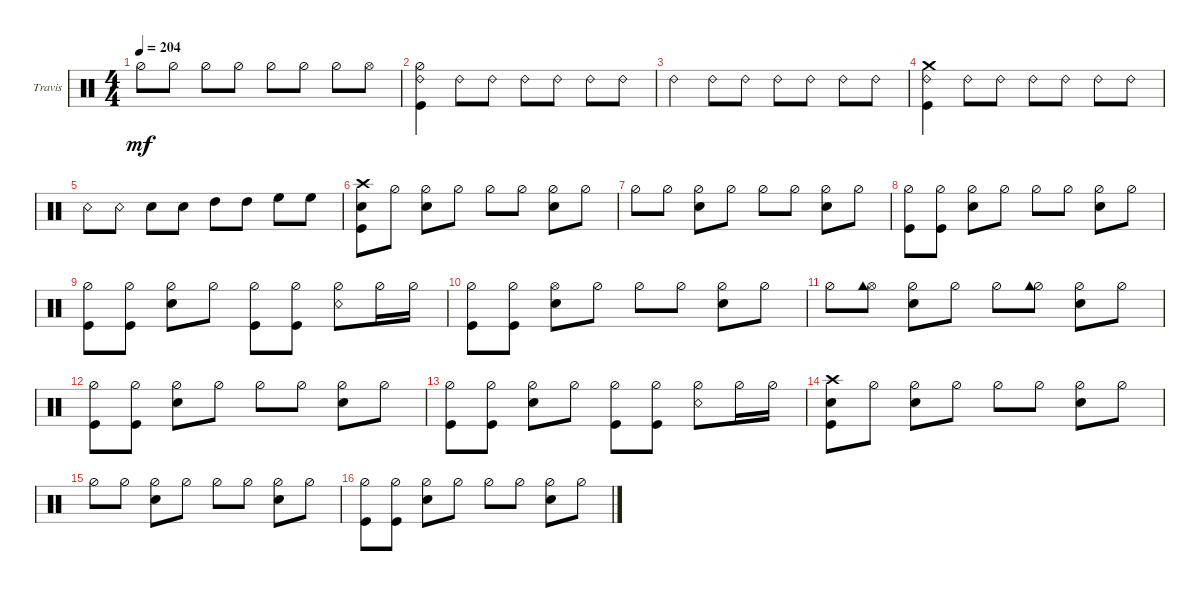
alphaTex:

\defaultSystemsLayout 4
\bracketExtendMode groupsimilarinstruments
\firstSystemTrackNameOrientation horizontal
\otherSystemsTrackNameOrientation horizontal
\track ("Travis Barker" "Travis") {instrument percussion}
\staff {score}
\articulation defaults
\ts (4 4)
\tempo 204
\clef neutral
\ks c "Hi-Hat (half)".8{dy mf} "Hi-Hat (half)".8 "Hi-Hat (half)".8 "Hi-Hat (half)".8 "Hi-Hat (half)".8 "Hi-Hat (half)".8 "Hi-Hat (half)".8 "Hi-Hat (open)".8
|
("Ride (bell) 2" "Kick (hit)" "Hi-Hat (half)").4 "Ride (bell) 2".8 "Ride (bell) 2".8 "Ride (bell) 2".8 "Ride (bell) 2".8 "Ride (bell) 2".8 "Ride (bell) 2".8 |
"Ride (bell) 2".4 "Ride (bell) 2".8 "Ride (bell) 2".8 "Ride (bell) 2".8 "Ride (bell) 2".8 "Ride (bell) 2".8 "Ride (bell) 2".8 |
("Crash medium (hit)" "Ride (bell) 2" "Kick (hit)").4 "Ride (bell) 2".8 "Ride (bell) 2".8 "Ride (bell) 2".8 "Ride (bell) 2".8 "Ride (bell) 2".8 "Ride (bell) 2".8 |
"Snare (rim shot)".8 "Snare (rim shot)".8 "Snare (hit) 2".8 "Snare (hit) 2".8 "High Tom (hit)".8 "High Tom (hit)".8 "High Floor Tom (hit)".8 "High Floor Tom (hit)".8 |
("Crash high (hit)" "Kick (hit)" "Snare (hit) 2").8 "Hi-Hat (half)".8 ("Hi-Hat (half)" "Snare (hit) 2").8 "Hi-Hat (half)".8 "Hi-Hat (half)".8 "Hi-Hat (half)".8 ("Hi-Hat (half)" "Snare (hit) 2").8 "Hi-Hat (half)".8 |
"Hi-Hat (half)".8 "Hi-Hat (half)".8 ("Hi-Hat (half)" "Snare (hit) 2").8 "Hi-Hat (half)".8 "Hi-Hat (half)".8 "Hi-Hat (half)".8 ("Hi-Hat (half)" "Snare (hit) 2").8 "Hi-Hat (half)".8 |
("Hi-Hat (half)" "Kick (hit)").8 ("Kick (hit)" "Hi-Hat (half)").8 ("Hi-Hat (half)" "Snare (hit) 2").8 "Hi-Hat (half)".8 "Hi-Hat (half)".8 "Hi-Hat (half)".8 ("Hi-Hat (half)" "Snare (hit) 2").8 "Hi-Hat (half)".8 |
("Hi-Hat (half)" "Kick (hit)").8 ("Hi-Hat (half)" "Kick (hit)").8 ("Hi-Hat (half)" "Snare (hit) 2").8 "Hi-Hat (half)".8 ("Hi-Hat (half)" "Kick (hit)").8 ("Hi-Hat (half)" "Kick (hit)").8 ("Hi-Hat (half)" "Snare (rim shot)").8 "Hi-Hat (half)".16 "Hi-Hat (half)".16 |
("Hi-Hat (half)" "Kick (hit)").8 ("Kick (hit)" "Hi-Hat (half)").8 ("Hi-Hat (open)" "Snare (hit) 2").8 "Hi-Hat (half)".8 "Hi-Hat (half)".8 "Hi-Hat (half)".8 ("Hi-Hat (half)" "Snare (hit) 2").8 "Hi-Hat (half)".8 |
"Hi-Hat (half)".8 ("Hi-Hat (open)" "Cowbell high (hit)").8 ("Hi-Hat (half)" "Snare (hit) 2").8 "Hi-Hat (half)".8 "Hi-Hat (half)".8 ("Hi-Hat (half)" "Cowbell high (hit)").8 ("Hi-Hat (half)" "Snare (hit) 2").8 "Hi-Hat (half)".8 |
("Hi-Hat (half)" "Kick (hit)").8 ("Kick (hit)" "Hi-Hat (half)").8 ("Hi-Hat (half)" "Snare (hit) 2").8 "Hi-Hat (half)".8 "Hi-Hat (half)".8 "Hi-Hat (half)".8 ("Hi-Hat (half)" "Snare (hit) 2").8 "Hi-Hat (half)".8 |
("Hi-Hat (half)" "Kick (hit)").8 ("Hi-Hat (half)" "Kick (hit)").8 ("Hi-Hat (half)" "Snare (hit) 2").8 "Hi-Hat (half)".8 ("Hi-Hat (half)" "Kick (hit)").8 ("Hi-Hat (half)" "Kick (hit)").8 ("Hi-Hat (half)" "Snare (rim shot)").8 "Hi-Hat (half)".16 "Hi-Hat (half)".16 |
("Crash high (hit)" "Kick (hit)" "Snare (hit) 2").8 "Hi-Hat (half)".8 ("Hi-Hat (half)" "Snare (hit) 2").8 "Hi-Hat (half)".8 "Hi-Hat (half)".8 "Hi-Hat (half)".8 ("Hi-Hat (half)" "Snare (hit) 2").8 "Hi-Hat (half)".8 |
"Hi-Hat (half)".8 "Hi-Hat (half)".8 ("Hi-Hat (half)" "Snare (hit) 2").8 "Hi-Hat (half)".8 "Hi-Hat (half)".8 "Hi-Hat (half)".8 ("Hi-Hat (half)" "Snare (hit) 2").8 "Hi-Hat (half)".8 |
("Hi-Hat (half)" "Kick (hit)").8 ("Kick (hit)" "Hi-Hat (half)").8 ("Hi-Hat (half)" "Snare (hit) 2").8 "Hi-Hat (half)".8 "Hi-Hat (half)".8 "Hi-Hat (half)".8 ("Hi-Hat (half)" "Snare (hit) 2").8 "Hi-Hat (half)".8
